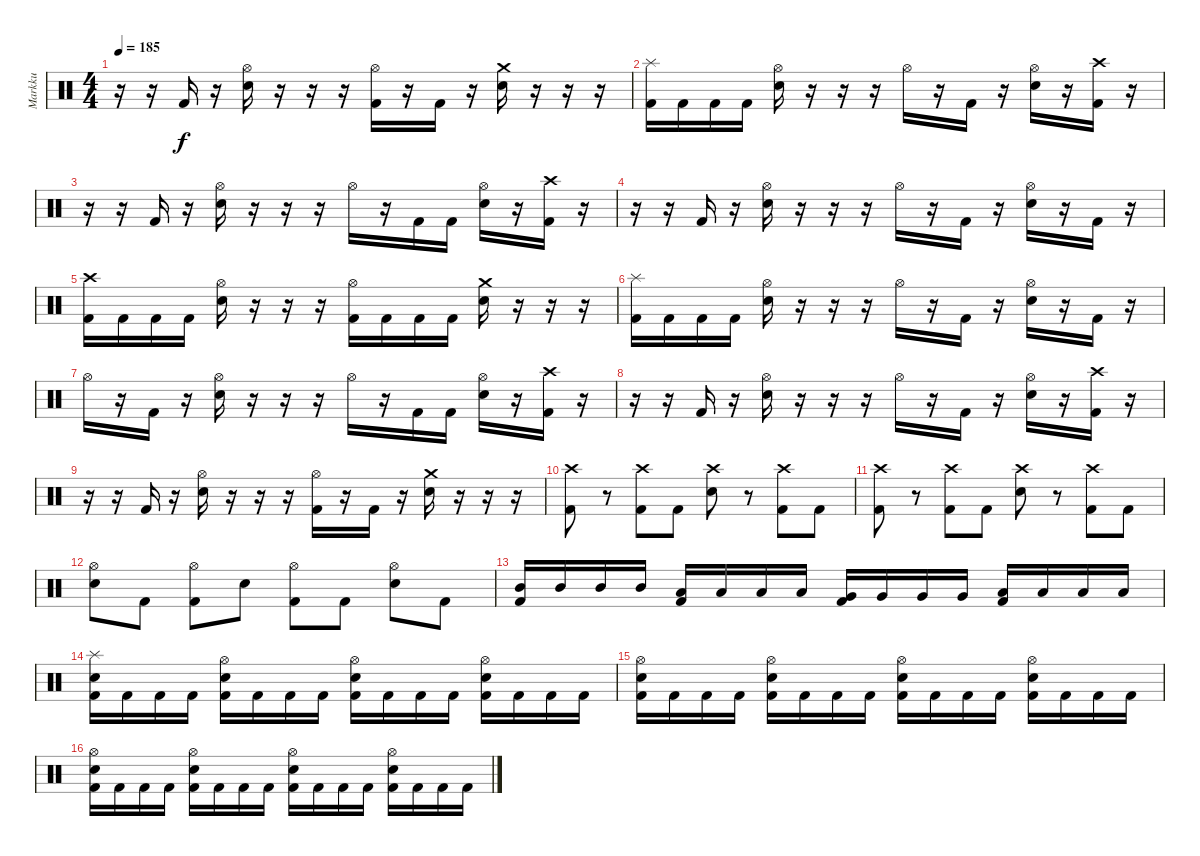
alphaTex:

\track ("Markku" "Markku") {instrument percussion}
\staff {score}
\articulation defaults
\ts (4 4)
\tempo 185
\clef neutral
\ks c
r.16{dy f} r.16 "Kick (hit) 2".16 r.16 ("Snare (hit) 2" "Hi-Hat (open)").16 r.16 r.16 r.16 ("Kick (hit) 2" "Hi-Hat (open)").16 r.16 "Kick (hit) 2".16 r.16 ("Snare (hit) 2" "Crash medium (hit)").16 r.16 r.16 r.16 |
("Kick (hit) 2" "Splash (hit)").16 "Kick (hit) 2".16 "Kick (hit) 2".16 "Kick (hit) 2".16 ("Snare (hit) 2" "Hi-Hat (open)").16 r.16 r.16 r.16 "Hi-Hat (open)".16 r.16 "Kick (hit) 2".16 r.16 ("Snare (hit) 2" "Hi-Hat (open)").16 r.16 ("Kick (hit) 2" "Crash high (hit)").16 r.16 |
r.16 r.16 "Kick (hit) 2".16 r.16 ("Snare (hit) 2" "Hi-Hat (open)").16 r.16 r.16 r.16 "Hi-Hat (open)".16 r.16 "Kick (hit) 2".16 "Kick (hit) 2".16 ("Snare (hit) 2" "Hi-Hat (open)").16 r.16 ("Kick (hit) 2" "Crash high (hit)").16 r.16 |
r.16 r.16 "Kick (hit) 2".16 r.16 ("Snare (hit) 2" "Hi-Hat (open)").16 r.16 r.16 r.16 "Hi-Hat (open)".16 r.16 "Kick (hit) 2".16 r.16 ("Snare (hit) 2" "Hi-Hat (open)").16 r.16 "Kick (hit) 2".16 r.16 |
("Kick (hit) 2" "Crash high (hit)").16 "Kick (hit) 2".16 "Kick (hit) 2".16 "Kick (hit) 2".16 ("Snare (hit) 2" "Hi-Hat (open)").16 r.16 r.16 r.16 ("Kick (hit) 2" "Hi-Hat (open)").16 "Kick (hit) 2".16 "Kick (hit) 2".16 "Kick (hit) 2".16 ("Snare (hit) 2" "Crash medium (hit)").16 r.16 r.16 r.16 |
("Kick (hit) 2" "Splash (hit)").16 "Kick (hit) 2".16 "Kick (hit) 2".16 "Kick (hit) 2".16 ("Snare (hit) 2" "Hi-Hat (open)").16 r.16 r.16 r.16 "Hi-Hat (open)".16 r.16 "Kick (hit) 2".16 r.16 ("Snare (hit) 2" "Hi-Hat (open)").16 r.16 "Kick (hit) 2".16 r.16 |
"Hi-Hat (open)".16 r.16 "Kick (hit) 2".16 r.16 ("Snare (hit) 2" "Hi-Hat (open)").16 r.16 r.16 r.16 "Hi-Hat (open)".16 r.16 "Kick (hit) 2".16 "Kick (hit) 2".16 ("Snare (hit) 2" "Hi-Hat (open)").16 r.16 ("Kick (hit) 2" "Crash high (hit)").16 r.16 |
r.16 r.16 "Kick (hit) 2".16 r.16 ("Snare (hit) 2" "Hi-Hat (open)").16 r.16 r.16 r.16 "Hi-Hat (open)".16 r.16 "Kick (hit) 2".16 r.16 ("Snare (hit) 2" "Hi-Hat (open)").16 r.16 ("Kick (hit) 2" "Crash high (hit)").16 r.16 |
r.16 r.16 "Kick (hit) 2".16 r.16 ("Snare (hit) 2" "Hi-Hat (open)").16 r.16 r.16 r.16 ("Kick (hit) 2" "Hi-Hat (open)").16 r.16 "Kick (hit) 2".16 r.16 ("Snare (hit) 2" "Crash medium (hit)").16 r.16 r.16 r.16 |
("Kick (hit) 2" "Crash high (hit)").8 r.8 ("Kick (hit) 2" "Crash high (hit)").8 "Kick (hit) 2".8 ("Snare (hit) 2" "Crash high (hit)").8 r.8 ("Kick (hit) 2" "Crash high (hit)").8 "Kick (hit) 2".8 |
("Kick (hit) 2" "Crash high (hit)").8 r.8 ("Kick (hit) 2" "Crash high (hit)").8 "Kick (hit) 2".8 ("Snare (hit) 2" "Crash high (hit)").8 r.8 ("Kick (hit) 2" "Crash high (hit)").8 "Kick (hit) 2".8 |
("Snare (hit) 2" "Hi-Hat (open)").8 "Kick (hit) 2".8 ("Kick (hit) 2" "Hi-Hat (open)").8 "Snare (hit) 2".8 ("Kick (hit) 2" "Hi-Hat (open)").8 "Kick (hit) 2".8 ("Snare (hit) 2" "Hi-Hat (open)").8 "Kick (hit) 2".8 |
("Kick (hit) 2" "Mid Tom (hit)").16 "Mid Tom (hit)".16 "Mid Tom (hit)".16 "Mid Tom (hit)".16 ("Kick (hit) 2" "Low Tom (hit)").16 "Low Tom (hit)".16 "Low Tom (hit)".16 "Low Tom (hit)".16 ("Kick (hit) 2" "Very Low Tom (hit)").16 "Very Low Tom (hit)".16 "Very Low Tom (hit)".16 "Very Low Tom (hit)".16 ("Kick (hit) 2" "Low Floor Tom (hit)").16 "Low Floor Tom (hit)".16 "Low Floor Tom (hit)".16 "Low Floor Tom (hit)".16 |
("Kick (hit) 2" "Snare (hit) 2" "Splash (hit)").16 "Kick (hit) 2".16 "Kick (hit) 2".16 "Kick (hit) 2".16 ("Kick (hit) 2" "Snare (hit) 2" "Hi-Hat (open)").16 "Kick (hit) 2".16 "Kick (hit) 2".16 "Kick (hit) 2".16 ("Kick (hit) 2" "Snare (hit) 2" "Hi-Hat (open)").16 "Kick (hit) 2".16 "Kick (hit) 2".16 "Kick (hit) 2".16 ("Kick (hit) 2" "Snare (hit) 2" "Hi-Hat (open)").16 "Kick (hit) 2".16 "Kick (hit) 2".16 "Kick (hit) 2".16 |
("Kick (hit) 2" "Snare (hit) 2" "Hi-Hat (open)").16 "Kick (hit) 2".16 "Kick (hit) 2".16 "Kick (hit) 2".16 ("Kick (hit) 2" "Snare (hit) 2" "Hi-Hat (open)").16 "Kick (hit) 2".16 "Kick (hit) 2".16 "Kick (hit) 2".16 ("Kick (hit) 2" "Snare (hit) 2" "Hi-Hat (open)").16 "Kick (hit) 2".16 "Kick (hit) 2".16 "Kick (hit) 2".16 ("Kick (hit) 2" "Snare (hit) 2" "Hi-Hat (open)").16 "Kick (hit) 2".16 "Kick (hit) 2".16 "Kick (hit) 2".16 |
("Kick (hit) 2" "Snare (hit) 2" "Hi-Hat (open)").16 "Kick (hit) 2".16 "Kick (hit) 2".16 "Kick (hit) 2".16 ("Kick (hit) 2" "Snare (hit) 2" "Hi-Hat (open)").16 "Kick (hit) 2".16 "Kick (hit) 2".16 "Kick (hit) 2".16 ("Kick (hit) 2" "Snare (hit) 2" "Hi-Hat (open)").16 "Kick (hit) 2".16 "Kick (hit) 2".16 "Kick (hit) 2".16 ("Kick (hit) 2" "Snare (hit) 2" "Hi-Hat (open)").16 "Kick (hit) 2".16 "Kick (hit) 2".16 "Kick (hit) 2".16
